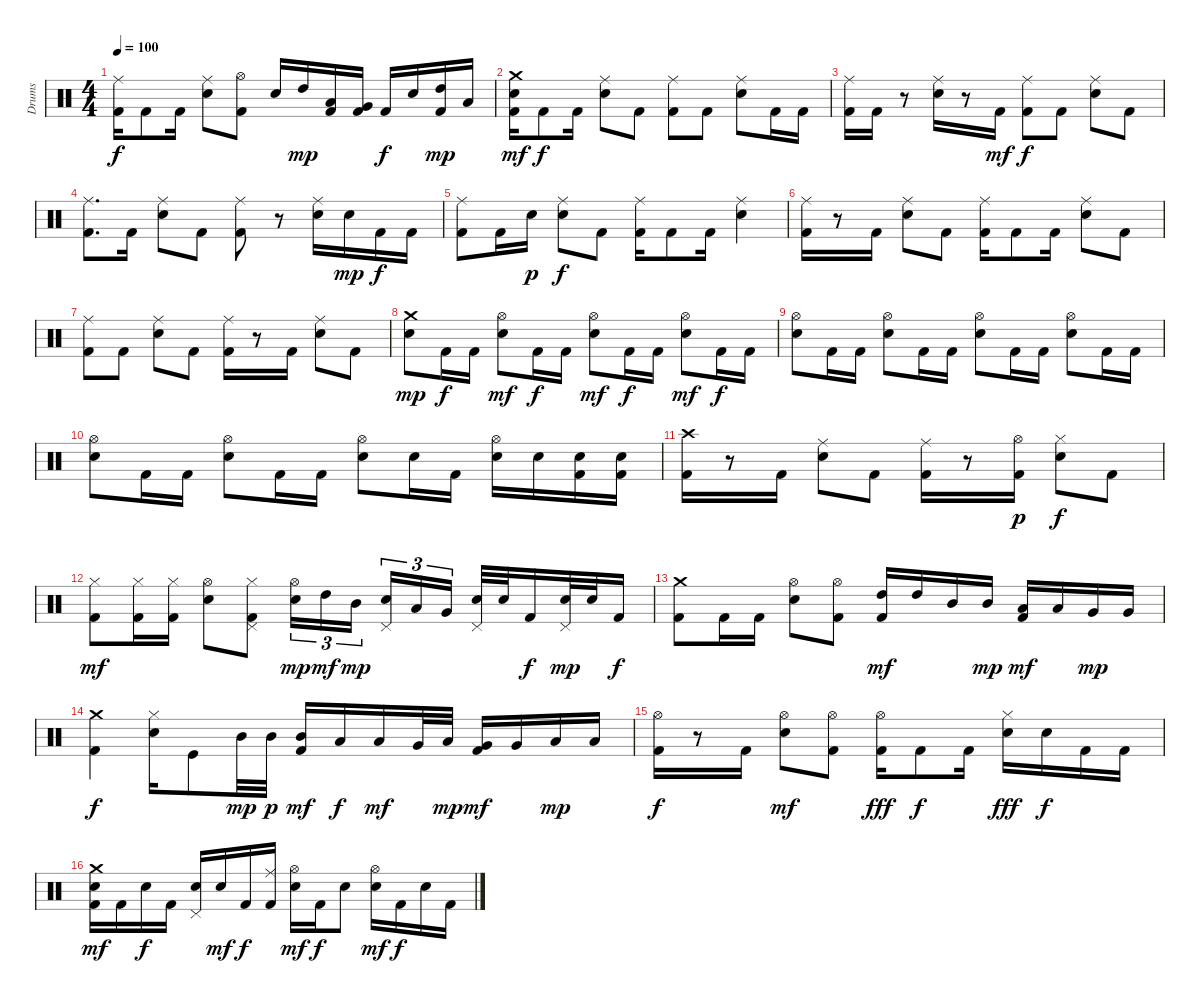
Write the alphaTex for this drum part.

\track ("Drums" "Drums") {instrument percussion}
\staff {score}
\articulation defaults
\ts (4 4)
\tempo 100
\clef neutral
\ks c
("Ride (middle)" "Kick (hit) 2").16{dy f} "Kick (hit) 2".8 "Kick (hit) 2".16 ("Ride (middle)" "Electric Snare (hit)").8 ("Kick (hit) 2" "Hi-Hat (open)").8 "Electric Snare (hit)".16 "High Tom (hit)".16{dy mp} ("Low Tom (hit)" "Kick (hit) 2").16 ("Very Low Tom (hit)" "Kick (hit) 2").16 "Kick (hit) 2".16{dy f} "Electric Snare (hit)".16 ("Kick (hit) 2" "High Tom (hit)").16{dy mp} "Low Tom (hit)".16 |
("Kick (hit) 2" "Electric Snare (hit)" "Crash medium (hit)").16{dy mf} "Kick (hit) 2".8{dy f} "Kick (hit) 2".16 ("Ride (middle)" "Electric Snare (hit)").8 "Kick (hit) 2".8 ("Kick (hit) 2" "Ride (middle)").8 "Kick (hit) 2".8 ("Electric Snare (hit)" "Ride (middle)").8 "Kick (hit) 2".16 "Kick (hit) 2".16 |
("Ride (middle)" "Kick (hit) 2").16 "Kick (hit) 2".16 r.8 ("Ride (middle)" "Electric Snare (hit)").16 r.8 "Kick (hit) 2".16{dy mf} ("Kick (hit) 2" "Ride (middle)").8{dy f} "Kick (hit) 2".8 ("Electric Snare (hit)" "Ride (middle)").8 "Kick (hit) 2".8 |
("Kick (hit) 2" "Ride (middle)").8{d} "Kick (hit) 2".16 ("Electric Snare (hit)" "Ride (middle)").8 "Kick (hit) 2".8 ("Kick (hit) 2" "Ride (middle)").8 r.8 ("Electric Snare (hit)" "Ride (middle)").16 "Electric Snare (hit)".16{dy mp} "Kick (hit) 2".16{dy f} "Kick (hit) 2".16 |
("Kick (hit) 2" "Ride (middle)").8 "Kick (hit) 2".16 "Snare (hit) 2".16{dy p} ("Ride (middle)" "Electric Snare (hit)").8{dy f} "Kick (hit) 2".8 ("Ride (middle)" "Kick (hit) 2").16 "Kick (hit) 2".8 "Kick (hit) 2".16 ("Ride (middle)" "Electric Snare (hit)").4 |
("Ride (middle)" "Kick (hit) 2").16 r.8 "Kick (hit) 2".16 ("Ride (middle)" "Electric Snare (hit)").8 "Kick (hit) 2".8 ("Ride (middle)" "Kick (hit) 2").16 "Kick (hit) 2".8 "Kick (hit) 2".16 ("Ride (middle)" "Electric Snare (hit)").8 "Kick (hit) 2".8 |
("Ride (middle)" "Kick (hit) 2").8 "Kick (hit) 2".8 ("Ride (middle)" "Electric Snare (hit)").8 "Kick (hit) 2".8 ("Ride (middle)" "Kick (hit) 2").16 r.8 "Kick (hit) 2".16 ("Ride (middle)" "Electric Snare (hit)").8 "Kick (hit) 2".8 |
("Crash medium (hit)" "Electric Snare (hit)").8{dy mp} "Kick (hit) 2".16{dy f} "Kick (hit) 2".16 ("Hi-Hat (open)" "Electric Snare (hit)").8{dy mf} "Kick (hit) 2".16{dy f} "Kick (hit) 2".16 ("Electric Snare (hit)" "Hi-Hat (open)").8{dy mf} "Kick (hit) 2".16{dy f} "Kick (hit) 2".16 ("Electric Snare (hit)" "Hi-Hat (open)").8{dy mf} "Kick (hit) 2".16{dy f} "Kick (hit) 2".16 |
("Electric Snare (hit)" "Hi-Hat (open)").8 "Kick (hit) 2".16 "Kick (hit) 2".16 ("Hi-Hat (open)" "Electric Snare (hit)").8 "Kick (hit) 2".16 "Kick (hit) 2".16 ("Hi-Hat (open)" "Electric Snare (hit)").8 "Kick (hit) 2".16 "Kick (hit) 2".16 ("Electric Snare (hit)" "Hi-Hat (open)").8 "Kick (hit) 2".16 "Kick (hit) 2".16 |
("Electric Snare (hit)" "Hi-Hat (open)").8 "Kick (hit) 2".16 "Kick (hit) 2".16 ("Electric Snare (hit)" "Hi-Hat (open)").8 "Kick (hit) 2".16 "Kick (hit) 2".16 ("Electric Snare (hit)" "Hi-Hat (open)").8 "Electric Snare (hit)".16 "Kick (hit) 2".16 ("Hi-Hat (open)" "Electric Snare (hit)").16 "Electric Snare (hit)".16 ("Electric Snare (hit)" "Kick (hit) 2").16 ("Electric Snare (hit)" "Kick (hit) 2").16 |
("Kick (hit) 2" "Crash high (hit)").16 r.8 "Kick (hit) 2".16 ("Ride (middle)" "Electric Snare (hit)").8 "Kick (hit) 2".8 ("Ride (middle)" "Kick (hit) 2").16 r.8 ("Hi-Hat (open)" "Kick (hit) 2").16{dy p} ("Hi-Hat (closed)" "Electric Snare (hit)").8{dy f} "Kick (hit) 2".8 |
("Hi-Hat (closed)" "Kick (hit) 2").8{dy mf} ("Hi-Hat (closed)" "Kick (hit) 2").16 ("Hi-Hat (closed)" "Kick (hit) 2").16 ("Hi-Hat (open)" "Electric Snare (hit)").8 ("Hi-Hat (closed)" "Pedal Hi-Hat (hit)" "Kick (hit) 2").8 ("Hi-Hat (open)" "Electric Snare (hit)").16{tu (3 2) dy mp} "High Tom (hit)".16{tu (3 2) dy mf} "Mid Tom (hit)".16{tu (3 2) dy mp} ("Pedal Hi-Hat (hit)" "Electric Snare (hit)").16{tu (3 2)} "Low Tom (hit)".16{tu (3 2)} "Very Low Tom (hit)".16{tu (3 2)} ("Pedal Hi-Hat (hit)" "Electric Snare (hit)").32 "Electric Snare (hit)".32 "Kick (hit) 2".16{dy f} ("Pedal Hi-Hat (hit)" "Electric Snare (hit)").32{dy mp} "Electric Snare (hit)".32 "Kick (hit) 2".16{dy f} |
("Kick (hit) 2" "Crash medium (hit)").8 "Kick (hit) 2".16 "Kick (hit) 2".16 ("Hi-Hat (open)" "Electric Snare (hit)").8 ("Kick (hit) 2" "Hi-Hat (open)").8 ("Kick (hit) 2" "High Tom (hit)").16{dy mf} "High Tom (hit)".16 "Mid Tom (hit)".16 "Mid Tom (hit)".16{dy mp} ("Kick (hit) 2" "Low Tom (hit)").16{dy mf} "Low Tom (hit)".16 "Very Low Tom (hit)".16{dy mp} "Very Low Tom (hit)".16 |
("Kick (hit) 2" "Crash medium (hit)").4{dy f} ("Hi-Hat (closed)" "Electric Snare (hit)").16 "Kick (hit)".8 "Mid Tom (hit)".32{dy mp} "Mid Tom (hit)".32{dy p} ("Kick (hit) 2" "Mid Tom (hit)").16{dy mf} "Low Tom (hit)".16{dy f} "Low Tom (hit)".16{dy mf} "Very Low Tom (hit)".32 "Low Tom (hit)".32{dy mp} ("Kick (hit) 2" "Very Low Tom (hit)").16{dy mf} "Very Low Tom (hit)".16 "Low Floor Tom (hit)".16{dy mp} "Low Floor Tom (hit)".16 |
("Kick (hit) 2" "Hi-Hat (open)").16{dy f} r.8 "Kick (hit) 2".16 ("Hi-Hat (open)" "Electric Snare (hit)").8{dy mf} ("Kick (hit) 2" "Hi-Hat (open)").8 ("Hi-Hat (open)" "Kick (hit) 2").16{dy fff} "Kick (hit) 2".8{dy f} "Kick (hit) 2".16 ("Hi-Hat (closed)" "Electric Snare (hit)").16{dy fff} "Electric Snare (hit)".16{dy f} "Kick (hit) 2".16 "Kick (hit) 2".16 |
("Crash medium (hit)" "Electric Snare (hit)" "Kick (hit) 2").16{dy mf} "Kick (hit) 2".16 "Electric Snare (hit)".16{dy f} "Kick (hit) 2".16 ("Pedal Hi-Hat (hit)" "Electric Snare (hit)").16 "Electric Snare (hit)".16{dy mf} "Kick (hit) 2".16{dy f} ("Ride (middle)" "Kick (hit) 2").16 ("Hi-Hat (open)" "Electric Snare (hit)").16{dy mf} "Kick (hit) 2".16{dy f} "Electric Snare (hit)".8 ("Hi-Hat (open)" "Electric Snare (hit)").16{dy mf} "Kick (hit) 2".16{dy f} "Electric Snare (hit)".16 "Kick (hit) 2".16
